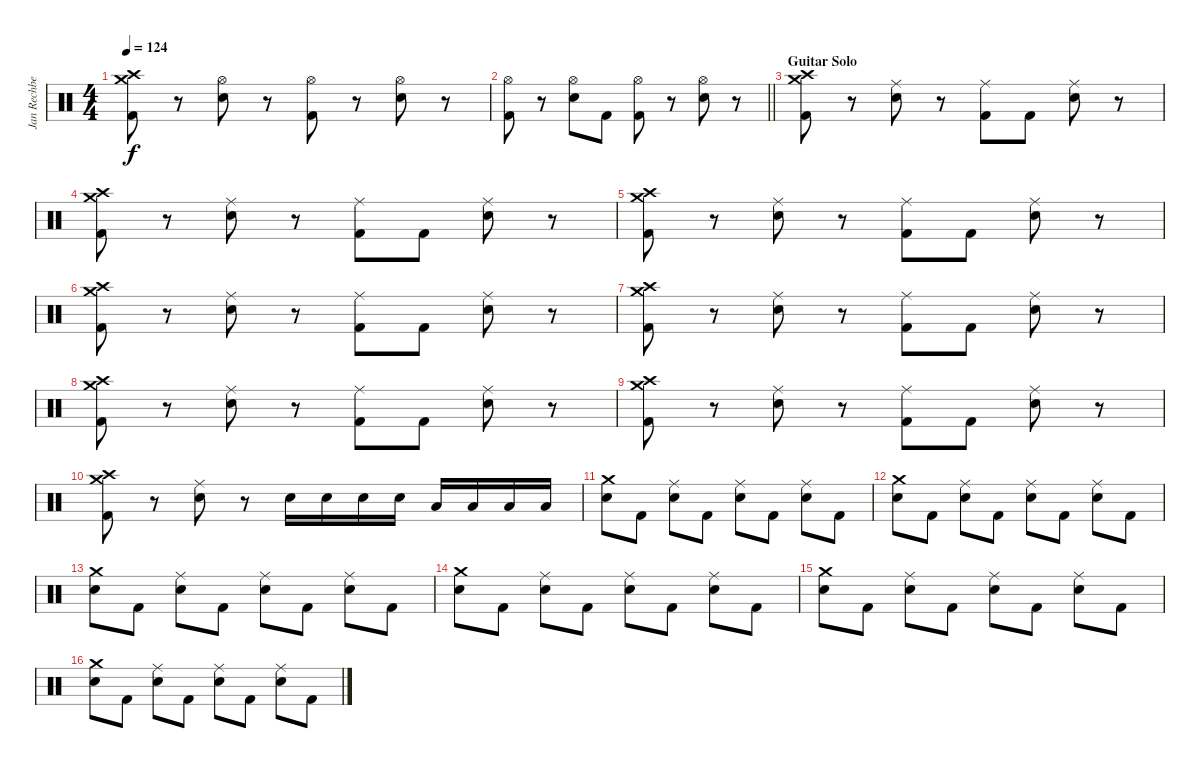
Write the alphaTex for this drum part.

\track ("Jan Rechberger" "Jan Rechbe") {instrument percussion}
\staff {score}
\articulation defaults
\ts (4 4)
\tempo 124
\clef neutral
\ks c
("Crash medium (hit)" "Crash high (hit)" "Kick (hit) 2").8{dy f} r.8 ("Hi-Hat (open)" "Snare (hit) 2").8 r.8 ("Hi-Hat (open)" "Kick (hit) 2").8 r.8 ("Hi-Hat (open)" "Snare (hit) 2").8 r.8 |
\barLineRight lightlight
("Hi-Hat (open)" "Kick (hit) 2").8 r.8 ("Hi-Hat (open)" "Snare (hit) 2").8 "Kick (hit) 2".8 ("Hi-Hat (open)" "Kick (hit) 2").8 r.8 ("Hi-Hat (open)" "Snare (hit) 2").8 r.8 |
\section ("" "Guitar Solo")
("Crash medium (hit)" "Crash high (hit)" "Kick (hit) 2").8 r.8 ("Ride (middle)" "Snare (hit) 2").8 r.8 ("Ride (middle)" "Kick (hit) 2").8 "Kick (hit) 2".8 ("Ride (middle)" "Snare (hit) 2").8 r.8 |
("Crash medium (hit)" "Crash high (hit)" "Kick (hit) 2").8 r.8 ("Ride (middle)" "Snare (hit) 2").8 r.8 ("Ride (middle)" "Kick (hit) 2").8 "Kick (hit) 2".8 ("Ride (middle)" "Snare (hit) 2").8 r.8 |
("Crash medium (hit)" "Crash high (hit)" "Kick (hit) 2").8 r.8 ("Ride (middle)" "Snare (hit) 2").8 r.8 ("Ride (middle)" "Kick (hit) 2").8 "Kick (hit) 2".8 ("Ride (middle)" "Snare (hit) 2").8 r.8 |
("Crash medium (hit)" "Crash high (hit)" "Kick (hit) 2").8 r.8 ("Ride (middle)" "Snare (hit) 2").8 r.8 ("Ride (middle)" "Kick (hit) 2").8 "Kick (hit) 2".8 ("Ride (middle)" "Snare (hit) 2").8 r.8 |
("Crash medium (hit)" "Crash high (hit)" "Kick (hit) 2").8 r.8 ("Ride (middle)" "Snare (hit) 2").8 r.8 ("Ride (middle)" "Kick (hit) 2").8 "Kick (hit) 2".8 ("Ride (middle)" "Snare (hit) 2").8 r.8 |
("Crash medium (hit)" "Crash high (hit)" "Kick (hit) 2").8 r.8 ("Ride (middle)" "Snare (hit) 2").8 r.8 ("Ride (middle)" "Kick (hit) 2").8 "Kick (hit) 2".8 ("Ride (middle)" "Snare (hit) 2").8 r.8 |
("Crash medium (hit)" "Crash high (hit)" "Kick (hit) 2").8 r.8 ("Ride (middle)" "Snare (hit) 2").8 r.8 ("Ride (middle)" "Kick (hit) 2").8 "Kick (hit) 2".8 ("Ride (middle)" "Snare (hit) 2").8 r.8 |
("Crash medium (hit)" "Crash high (hit)" "Kick (hit) 2").8 r.8 ("Ride (middle)" "Snare (hit) 2").8 r.8 "Snare (hit) 2".16 "Snare (hit) 2".16 "Snare (hit) 2".16 "Snare (hit) 2".16 "Low Tom (hit)".16 "Low Tom (hit)".16 "Low Tom (hit)".16 "Low Tom (hit)".16 |
("Crash medium (hit)" "Snare (hit) 2").8 "Kick (hit) 2".8 ("Ride (middle)" "Snare (hit) 2").8 "Kick (hit) 2".8 ("Ride (middle)" "Snare (hit) 2").8 "Kick (hit) 2".8 ("Ride (middle)" "Snare (hit) 2").8 "Kick (hit) 2".8 |
("Crash medium (hit)" "Snare (hit) 2").8 "Kick (hit) 2".8 ("Ride (middle)" "Snare (hit) 2").8 "Kick (hit) 2".8 ("Ride (middle)" "Snare (hit) 2").8 "Kick (hit) 2".8 ("Ride (middle)" "Snare (hit) 2").8 "Kick (hit) 2".8 |
("Crash medium (hit)" "Snare (hit) 2").8 "Kick (hit) 2".8 ("Ride (middle)" "Snare (hit) 2").8 "Kick (hit) 2".8 ("Ride (middle)" "Snare (hit) 2").8 "Kick (hit) 2".8 ("Ride (middle)" "Snare (hit) 2").8 "Kick (hit) 2".8 |
("Crash medium (hit)" "Snare (hit) 2").8 "Kick (hit) 2".8 ("Ride (middle)" "Snare (hit) 2").8 "Kick (hit) 2".8 ("Ride (middle)" "Snare (hit) 2").8 "Kick (hit) 2".8 ("Ride (middle)" "Snare (hit) 2").8 "Kick (hit) 2".8 |
("Crash medium (hit)" "Snare (hit) 2").8 "Kick (hit) 2".8 ("Ride (middle)" "Snare (hit) 2").8 "Kick (hit) 2".8 ("Ride (middle)" "Snare (hit) 2").8 "Kick (hit) 2".8 ("Ride (middle)" "Snare (hit) 2").8 "Kick (hit) 2".8 |
("Crash medium (hit)" "Snare (hit) 2").8 "Kick (hit) 2".8 ("Ride (middle)" "Snare (hit) 2").8 "Kick (hit) 2".8 ("Ride (middle)" "Snare (hit) 2").8 "Kick (hit) 2".8 ("Ride (middle)" "Snare (hit) 2").8 "Kick (hit) 2".8
